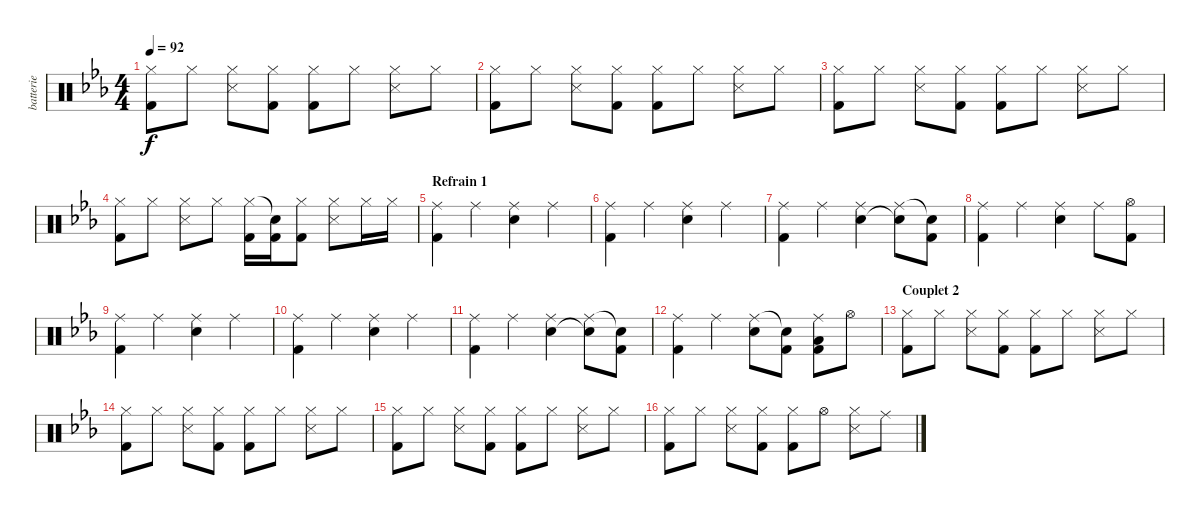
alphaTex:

\track ("batterie" "batterie") {instrument percussion}
\staff {score}
\articulation defaults
\ts (4 4)
\tempo 92
\clef neutral
\ks eb
("Kick (hit) 2" "Hi-Hat (closed)").8{dy f} "Hi-Hat (closed)".8 ("Snare (side stick) 3" "Hi-Hat (closed)").8 ("Kick (hit) 2" "Hi-Hat (closed)").8 ("Kick (hit) 2" "Hi-Hat (closed)").8 "Hi-Hat (closed)".8 ("Snare (side stick) 3" "Hi-Hat (closed)").8 "Hi-Hat (closed)".8 |
("Kick (hit) 2" "Hi-Hat (closed)").8 "Hi-Hat (closed)".8 ("Snare (side stick) 3" "Hi-Hat (closed)").8 ("Kick (hit) 2" "Hi-Hat (closed)").8 ("Kick (hit) 2" "Hi-Hat (closed)").8 "Hi-Hat (closed)".8 ("Snare (side stick) 3" "Hi-Hat (closed)").8 "Hi-Hat (closed)".8 |
("Kick (hit) 2" "Hi-Hat (closed)").8 "Hi-Hat (closed)".8 ("Snare (side stick) 3" "Hi-Hat (closed)").8 ("Kick (hit) 2" "Hi-Hat (closed)").8 ("Kick (hit) 2" "Hi-Hat (closed)").8 "Hi-Hat (closed)".8 ("Snare (side stick) 3" "Hi-Hat (closed)").8 "Hi-Hat (closed)".8 |
("Kick (hit) 2" "Hi-Hat (closed)").8 "Hi-Hat (closed)".8 ("Snare (side stick) 3" "Hi-Hat (closed)").8 "Hi-Hat (closed)".8 ("Kick (hit) 2" "Hi-Hat (closed)").16 ("Kick (hit) 2" "Snare (hit)"{t}).16 ("Kick (hit) 2" "Hi-Hat (closed)").8 ("Snare (side stick) 3" "Hi-Hat (closed)").8 "Hi-Hat (closed)".16 "Hi-Hat (closed)".16 |
\section ("" "Refrain 1")
("Kick (hit) 2" "Ride (middle)").4 "Ride (middle)".4 ("Snare (hit) 2" "Ride (middle)").4 "Ride (middle)".4 |
("Kick (hit) 2" "Ride (middle)").4 "Ride (middle)".4 ("Snare (hit) 2" "Ride (middle)").4 "Ride (middle)".4 |
("Kick (hit) 2" "Ride (middle)").4 "Ride (middle)".4 ("Snare (hit) 2" "Ride (middle)").4 ("Snare (hit)"{t} "Ride (middle)").8 ("Kick (hit) 2" "Snare (hit)"{t}).8 |
("Kick (hit) 2" "Ride (middle)").4 "Ride (middle)".4 ("Snare (hit) 2" "Ride (middle)").4 "Ride (middle)".8 ("Kick (hit) 2" "Hi-Hat (open)").8 |
("Kick (hit) 2" "Ride (middle)").4 "Ride (middle)".4 ("Snare (hit) 2" "Ride (middle)").4 "Ride (middle)".4 |
("Kick (hit) 2" "Ride (middle)").4 "Ride (middle)".4 ("Snare (hit) 2" "Ride (middle)").4 "Ride (middle)".4 |
("Kick (hit) 2" "Ride (middle)").4 "Ride (middle)".4 ("Snare (hit) 2" "Ride (middle)").4 ("Snare (hit)"{t} "Ride (middle)").8 ("Kick (hit) 2" "Snare (hit)"{t}).8 |
("Kick (hit) 2" "Ride (middle)").4 "Ride (middle)".4 ("Snare (hit) 2" "Ride (middle)").8 ("Kick (hit) 2" "Snare (hit)"{t}).8 ("Kick (hit) 2" "Ride (middle)" "Low Tom (hit)").8 "Hi-Hat (open)".8 |
\section ("" "Couplet 2")
("Kick (hit) 2" "Hi-Hat (closed)").8 "Hi-Hat (closed)".8 ("Snare (side stick) 3" "Hi-Hat (closed)").8 ("Kick (hit) 2" "Hi-Hat (closed)").8 ("Kick (hit) 2" "Hi-Hat (closed)").8 "Hi-Hat (closed)".8 ("Snare (side stick) 3" "Hi-Hat (closed)").8 "Hi-Hat (closed)".8 |
("Kick (hit) 2" "Hi-Hat (closed)").8 "Hi-Hat (closed)".8 ("Snare (side stick) 3" "Hi-Hat (closed)").8 ("Kick (hit) 2" "Hi-Hat (closed)").8 ("Kick (hit) 2" "Hi-Hat (closed)").8 "Hi-Hat (closed)".8 ("Snare (side stick) 3" "Hi-Hat (closed)").8 "Hi-Hat (closed)".8 |
("Kick (hit) 2" "Hi-Hat (closed)").8 "Hi-Hat (closed)".8 ("Snare (side stick) 3" "Hi-Hat (closed)").8 ("Kick (hit) 2" "Hi-Hat (closed)").8 ("Kick (hit) 2" "Hi-Hat (closed)").8 "Hi-Hat (closed)".8 ("Snare (side stick) 3" "Hi-Hat (closed)").8 "Hi-Hat (closed)".8 |
("Kick (hit) 2" "Hi-Hat (closed)").8 "Hi-Hat (closed)".8 ("Snare (side stick) 3" "Hi-Hat (closed)").8 ("Kick (hit) 2" "Hi-Hat (closed)").8 ("Kick (hit) 2" "Hi-Hat (closed)").8 "Hi-Hat (open)".8 ("Snare (side stick) 3" "Hi-Hat (closed)").8 "Ride (middle)".8
